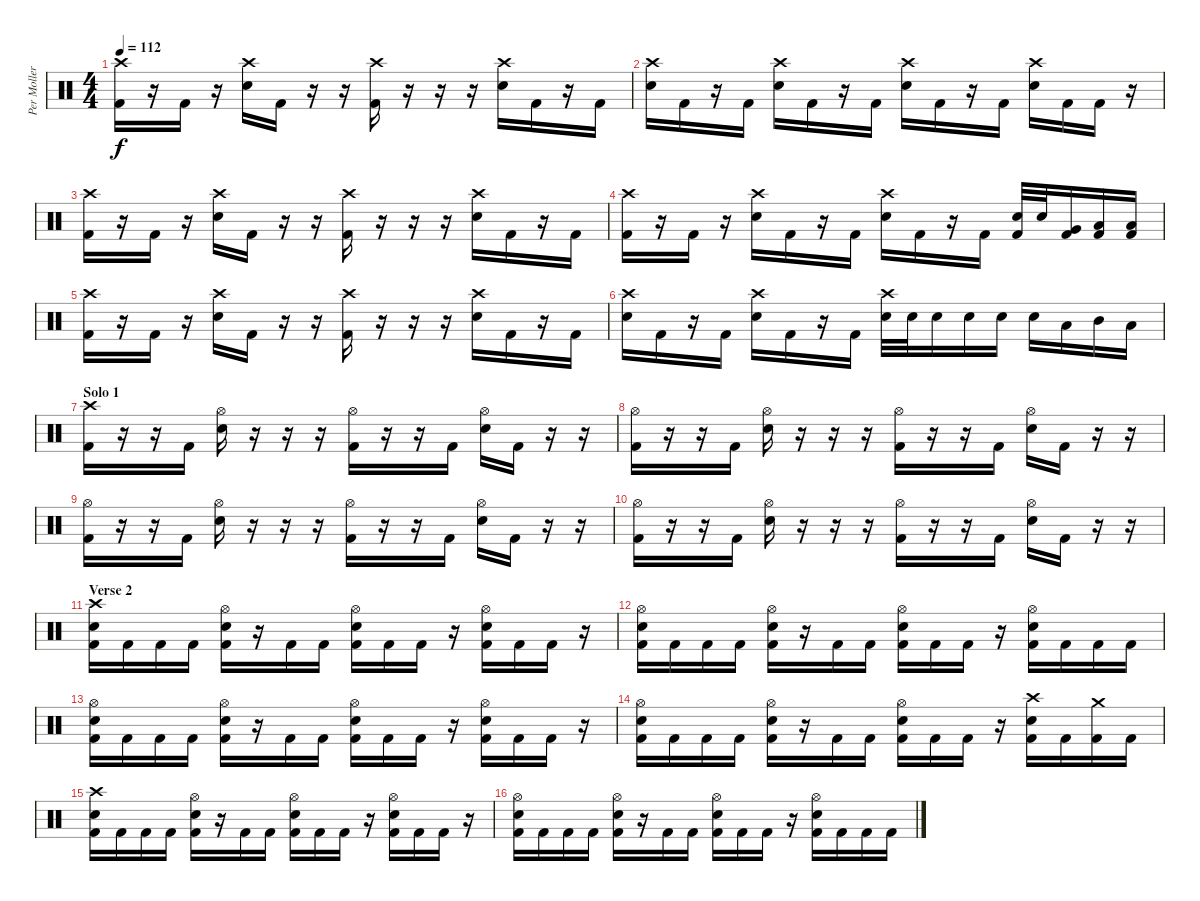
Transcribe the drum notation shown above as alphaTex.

\track ("Per Moller Jensen" "Per Moller") {instrument percussion}
\staff {score}
\articulation defaults
\ts (4 4)
\tempo 112
\clef neutral
\ks c
("Crash high (hit)" "Kick (hit) 2").16{dy f} r.16 "Kick (hit) 2".16 r.16 ("Crash high (hit)" "Electric Snare (hit)").16 "Kick (hit) 2".16 r.16 r.16 ("Crash high (hit)" "Kick (hit) 2").16 r.16 r.16 r.16 ("Crash high (hit)" "Electric Snare (hit)").16 "Kick (hit) 2".16 r.16 "Kick (hit) 2".16 |
("Crash high (hit)" "Electric Snare (hit)").16 "Kick (hit) 2".16 r.16 "Kick (hit) 2".16 ("Crash high (hit)" "Electric Snare (hit)").16 "Kick (hit) 2".16 r.16 "Kick (hit) 2".16 ("Crash high (hit)" "Electric Snare (hit)").16 "Kick (hit) 2".16 r.16 "Kick (hit) 2".16 ("Crash high (hit)" "Electric Snare (hit)").16 "Kick (hit) 2".16 "Kick (hit) 2".16 r.16 |
("Crash high (hit)" "Kick (hit) 2").16 r.16 "Kick (hit) 2".16 r.16 ("Crash high (hit)" "Electric Snare (hit)").16 "Kick (hit) 2".16 r.16 r.16 ("Crash high (hit)" "Kick (hit) 2").16 r.16 r.16 r.16 ("Crash high (hit)" "Electric Snare (hit)").16 "Kick (hit) 2".16 r.16 "Kick (hit) 2".16 |
("Crash high (hit)" "Kick (hit) 2").16 r.16 "Kick (hit) 2".16 r.16 ("Crash high (hit)" "Electric Snare (hit)").16 "Kick (hit) 2".16 r.16 "Kick (hit) 2".16 ("Crash high (hit)" "Electric Snare (hit)").16 "Kick (hit) 2".16 r.16 "Kick (hit) 2".16 ("Electric Snare (hit)" "Kick (hit) 2").32 "Electric Snare (hit)".32 ("Very Low Tom (hit)" "Kick (hit) 2").16 ("Low Tom (hit)" "Kick (hit) 2").16 ("Low Floor Tom (hit)" "Kick (hit) 2").16 |
("Crash high (hit)" "Kick (hit) 2").16 r.16 "Kick (hit) 2".16 r.16 ("Crash high (hit)" "Electric Snare (hit)").16 "Kick (hit) 2".16 r.16 r.16 ("Crash high (hit)" "Kick (hit) 2").16 r.16 r.16 r.16 ("Crash high (hit)" "Electric Snare (hit)").16 "Kick (hit) 2".16 r.16 "Kick (hit) 2".16 |
("Crash high (hit)" "Electric Snare (hit)").16 "Kick (hit) 2".16 r.16 "Kick (hit) 2".16 ("Crash high (hit)" "Electric Snare (hit)").16 "Kick (hit) 2".16 r.16 "Kick (hit) 2".16 ("Crash high (hit)" "Electric Snare (hit)").32 "Electric Snare (hit)".32 "Electric Snare (hit)".16 "Electric Snare (hit)".16 "Electric Snare (hit)".16 "Electric Snare (hit)".16 "Low Tom (hit)".16 "Mid Tom (hit)".16 "Low Floor Tom (hit)".16 |
\section ("" "Solo 1")
("Crash high (hit)" "Kick (hit) 2").16 r.16 r.16 "Kick (hit) 2".16 ("Hi-Hat (open)" "Electric Snare (hit)").16 r.16 r.16 r.16 ("Hi-Hat (open)" "Kick (hit) 2").16 r.16 r.16 "Kick (hit) 2".16 ("Hi-Hat (open)" "Electric Snare (hit)").16 "Kick (hit) 2".16 r.16 r.16 |
("Hi-Hat (open)" "Kick (hit) 2").16 r.16 r.16 "Kick (hit) 2".16 ("Hi-Hat (open)" "Electric Snare (hit)").16 r.16 r.16 r.16 ("Hi-Hat (open)" "Kick (hit) 2").16 r.16 r.16 "Kick (hit) 2".16 ("Hi-Hat (open)" "Electric Snare (hit)").16 "Kick (hit) 2".16 r.16 r.16 |
("Hi-Hat (open)" "Kick (hit) 2").16 r.16 r.16 "Kick (hit) 2".16 ("Hi-Hat (open)" "Electric Snare (hit)").16 r.16 r.16 r.16 ("Hi-Hat (open)" "Kick (hit) 2").16 r.16 r.16 "Kick (hit) 2".16 ("Hi-Hat (open)" "Electric Snare (hit)").16 "Kick (hit) 2".16 r.16 r.16 |
("Hi-Hat (open)" "Kick (hit) 2").16 r.16 r.16 "Kick (hit) 2".16 ("Hi-Hat (open)" "Electric Snare (hit)").16 r.16 r.16 r.16 ("Hi-Hat (open)" "Kick (hit) 2").16 r.16 r.16 "Kick (hit) 2".16 ("Hi-Hat (open)" "Electric Snare (hit)").16 "Kick (hit) 2".16 r.16 r.16 |
\section ("" "Verse 2")
("Crash high (hit)" "Electric Snare (hit)" "Kick (hit) 2").16 "Kick (hit) 2".16 "Kick (hit) 2".16 "Kick (hit) 2".16 ("Hi-Hat (open)" "Electric Snare (hit)" "Kick (hit) 2").16 r.16 "Kick (hit) 2".16 "Kick (hit) 2".16 ("Hi-Hat (open)" "Electric Snare (hit)" "Kick (hit) 2").16 "Kick (hit) 2".16 "Kick (hit) 2".16 r.16 ("Hi-Hat (open)" "Electric Snare (hit)" "Kick (hit) 2").16 "Kick (hit) 2".16 "Kick (hit) 2".16 r.16 |
("Hi-Hat (open)" "Electric Snare (hit)" "Kick (hit) 2").16 "Kick (hit) 2".16 "Kick (hit) 2".16 "Kick (hit) 2".16 ("Hi-Hat (open)" "Electric Snare (hit)" "Kick (hit) 2").16 r.16 "Kick (hit) 2".16 "Kick (hit) 2".16 ("Hi-Hat (open)" "Electric Snare (hit)" "Kick (hit) 2").16 "Kick (hit) 2".16 "Kick (hit) 2".16 r.16 ("Hi-Hat (open)" "Electric Snare (hit)" "Kick (hit) 2").16 "Kick (hit) 2".16 "Kick (hit) 2".16 "Kick (hit) 2".16 |
("Hi-Hat (open)" "Electric Snare (hit)" "Kick (hit) 2").16 "Kick (hit) 2".16 "Kick (hit) 2".16 "Kick (hit) 2".16 ("Hi-Hat (open)" "Electric Snare (hit)" "Kick (hit) 2").16 r.16 "Kick (hit) 2".16 "Kick (hit) 2".16 ("Hi-Hat (open)" "Electric Snare (hit)" "Kick (hit) 2").16 "Kick (hit) 2".16 "Kick (hit) 2".16 r.16 ("Hi-Hat (open)" "Electric Snare (hit)" "Kick (hit) 2").16 "Kick (hit) 2".16 "Kick (hit) 2".16 r.16 |
("Hi-Hat (open)" "Electric Snare (hit)" "Kick (hit) 2").16 "Kick (hit) 2".16 "Kick (hit) 2".16 "Kick (hit) 2".16 ("Hi-Hat (open)" "Electric Snare (hit)" "Kick (hit) 2").16 r.16 "Kick (hit) 2".16 "Kick (hit) 2".16 ("Hi-Hat (open)" "Electric Snare (hit)" "Kick (hit) 2").16 "Kick (hit) 2".16 "Kick (hit) 2".16 r.16 ("Crash high (hit)" "Electric Snare (hit)" "Kick (hit) 2").16 "Kick (hit) 2".16 ("Crash medium (hit)" "Kick (hit) 2").16 "Kick (hit) 2".16 |
("Crash high (hit)" "Electric Snare (hit)" "Kick (hit) 2").16 "Kick (hit) 2".16 "Kick (hit) 2".16 "Kick (hit) 2".16 ("Hi-Hat (open)" "Electric Snare (hit)" "Kick (hit) 2").16 r.16 "Kick (hit) 2".16 "Kick (hit) 2".16 ("Hi-Hat (open)" "Electric Snare (hit)" "Kick (hit) 2").16 "Kick (hit) 2".16 "Kick (hit) 2".16 r.16 ("Hi-Hat (open)" "Electric Snare (hit)" "Kick (hit) 2").16 "Kick (hit) 2".16 "Kick (hit) 2".16 r.16 |
("Hi-Hat (open)" "Electric Snare (hit)" "Kick (hit) 2").16 "Kick (hit) 2".16 "Kick (hit) 2".16 "Kick (hit) 2".16 ("Hi-Hat (open)" "Electric Snare (hit)" "Kick (hit) 2").16 r.16 "Kick (hit) 2".16 "Kick (hit) 2".16 ("Hi-Hat (open)" "Electric Snare (hit)" "Kick (hit) 2").16 "Kick (hit) 2".16 "Kick (hit) 2".16 r.16 ("Hi-Hat (open)" "Electric Snare (hit)" "Kick (hit) 2").16 "Kick (hit) 2".16 "Kick (hit) 2".16 "Kick (hit) 2".16
